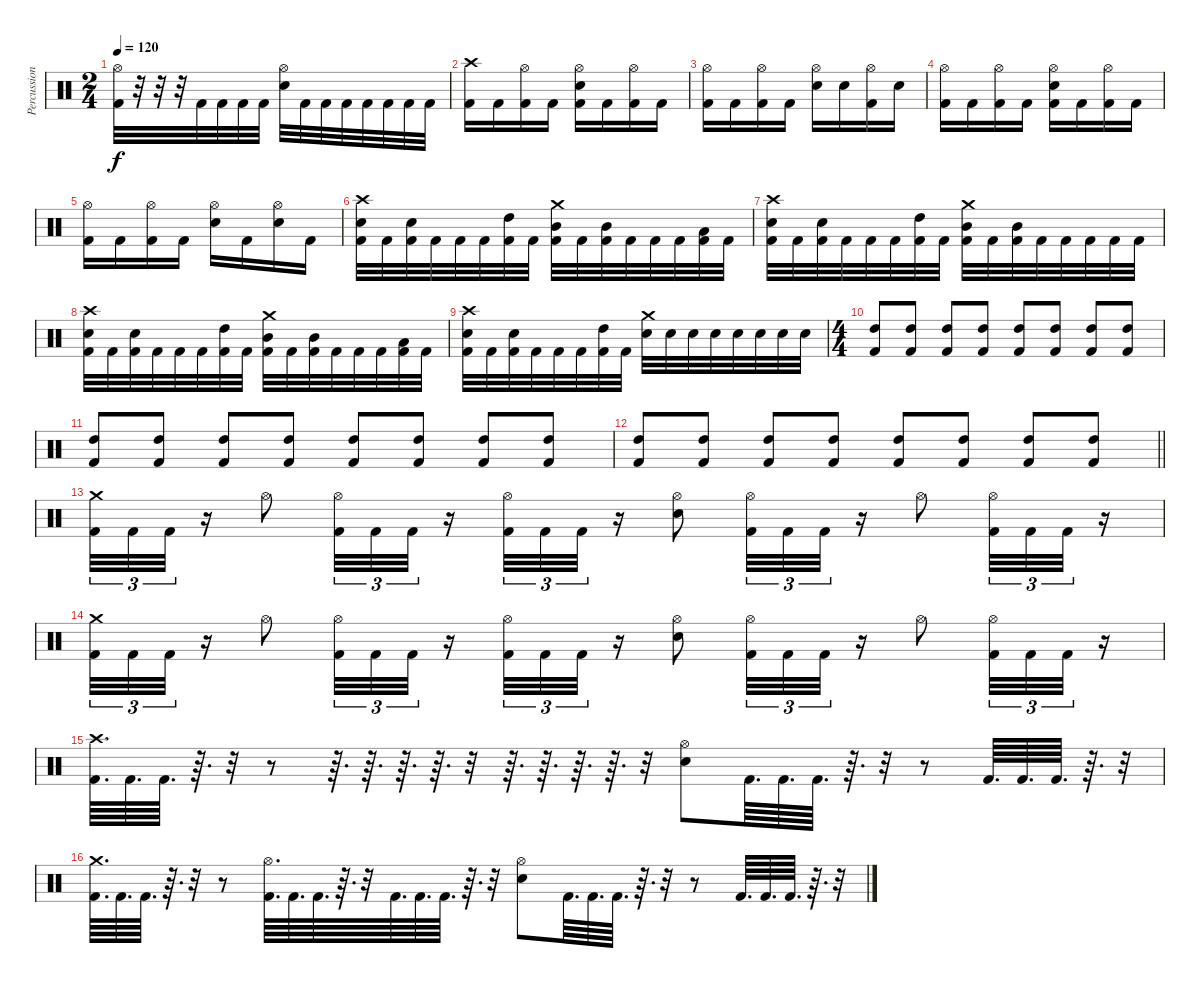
\track ("Percussion" "Percussion") {instrument percussion}
\staff {score}
\articulation defaults
\ts (2 4)
\tempo 120
\clef neutral
\ks c
("Kick (hit) 2" "Hi-Hat (open)").32{dy f} r.32 r.32 r.32 "Kick (hit) 2".32 "Kick (hit) 2".32 "Kick (hit) 2".32 "Kick (hit) 2".32 ("Electric Snare (hit)" "Hi-Hat (open)").32 "Kick (hit) 2".32 "Kick (hit) 2".32 "Kick (hit) 2".32 "Kick (hit) 2".32 "Kick (hit) 2".32 "Kick (hit) 2".32 "Kick (hit) 2".32 |
("Kick (hit) 2" "Crash high (hit)").16 "Kick (hit) 2".16 ("Kick (hit) 2" "Hi-Hat (open)").16 "Kick (hit) 2".16 ("Kick (hit) 2" "Electric Snare (hit)" "Hi-Hat (open)").16 "Kick (hit) 2".16 ("Kick (hit) 2" "Hi-Hat (open)").16 "Kick (hit) 2".16 |
("Kick (hit) 2" "Hi-Hat (open)").16 "Kick (hit) 2".16 ("Kick (hit) 2" "Hi-Hat (open)").16 "Kick (hit) 2".16 ("Electric Snare (hit)" "Hi-Hat (open)").16 "Electric Snare (hit)".16 ("Kick (hit) 2" "Hi-Hat (open)").16 "Electric Snare (hit)".16 |
("Kick (hit) 2" "Hi-Hat (open)").16 "Kick (hit) 2".16 ("Kick (hit) 2" "Hi-Hat (open)").16 "Kick (hit) 2".16 ("Kick (hit) 2" "Electric Snare (hit)" "Hi-Hat (open)").16 "Kick (hit) 2".16 ("Kick (hit) 2" "Hi-Hat (open)").16 "Kick (hit) 2".16 |
("Kick (hit) 2" "Hi-Hat (open)").16 "Kick (hit) 2".16 ("Kick (hit) 2" "Hi-Hat (open)").16 "Kick (hit) 2".16 ("Electric Snare (hit)" "Hi-Hat (open)").16 "Kick (hit) 2".16 ("Electric Snare (hit)" "Hi-Hat (open)").16 "Kick (hit) 2".16 |
("Kick (hit) 2" "Electric Snare (hit)" "Crash high (hit)").32 "Kick (hit) 2".32 ("Kick (hit) 2" "Electric Snare (hit)").32 "Kick (hit) 2".32 "Kick (hit) 2".32 "Kick (hit) 2".32 ("Kick (hit) 2" "High Tom (hit)").32 "Kick (hit) 2".32 ("Kick (hit) 2" "Mid Tom (hit)" "Crash medium (hit)").32 "Kick (hit) 2".32 ("Kick (hit) 2" "Mid Tom (hit)").32 "Kick (hit) 2".32 "Kick (hit) 2".32 "Kick (hit) 2".32 ("Kick (hit) 2" "Low Tom (hit)").32 "Kick (hit) 2".32 |
("Kick (hit) 2" "Electric Snare (hit)" "Crash high (hit)").32 "Kick (hit) 2".32 ("Kick (hit) 2" "Electric Snare (hit)").32 "Kick (hit) 2".32 "Kick (hit) 2".32 "Kick (hit) 2".32 ("Kick (hit) 2" "High Tom (hit)").32 "Kick (hit) 2".32 ("Kick (hit) 2" "Mid Tom (hit)" "Crash medium (hit)").32 "Kick (hit) 2".32 ("Kick (hit) 2" "Mid Tom (hit)").32 "Kick (hit) 2".32 "Kick (hit) 2".32 "Kick (hit) 2".32 "Kick (hit) 2".32 "Kick (hit) 2".32 |
("Kick (hit) 2" "Electric Snare (hit)" "Crash high (hit)").32 "Kick (hit) 2".32 ("Kick (hit) 2" "Electric Snare (hit)").32 "Kick (hit) 2".32 "Kick (hit) 2".32 "Kick (hit) 2".32 ("Kick (hit) 2" "High Tom (hit)").32 "Kick (hit) 2".32 ("Kick (hit) 2" "Mid Tom (hit)" "Crash medium (hit)").32 "Kick (hit) 2".32 ("Kick (hit) 2" "Mid Tom (hit)").32 "Kick (hit) 2".32 "Kick (hit) 2".32 "Kick (hit) 2".32 ("Kick (hit) 2" "Low Tom (hit)").32 "Kick (hit) 2".32 |
("Kick (hit) 2" "Electric Snare (hit)" "Crash high (hit)").32 "Kick (hit) 2".32 ("Kick (hit) 2" "Electric Snare (hit)").32 "Kick (hit) 2".32 "Kick (hit) 2".32 "Kick (hit) 2".32 ("Kick (hit) 2" "High Tom (hit)").32 "Kick (hit) 2".32 ("Electric Snare (hit)" "Crash medium (hit)").32 "Electric Snare (hit)".32 "Electric Snare (hit)".32 "Electric Snare (hit)".32 "Electric Snare (hit)".32 "Electric Snare (hit)".32 "Electric Snare (hit)".32 "Electric Snare (hit)".32 |
\ts (4 4)
("Kick (hit) 2" "High Tom (hit)").8 ("Kick (hit) 2" "High Tom (hit)").8 ("Kick (hit) 2" "High Tom (hit)").8 ("Kick (hit) 2" "High Tom (hit)").8 ("Kick (hit) 2" "High Tom (hit)").8 ("Kick (hit) 2" "High Tom (hit)").8 ("Kick (hit) 2" "High Tom (hit)").8 ("Kick (hit) 2" "High Tom (hit)").8 |
("Kick (hit) 2" "High Tom (hit)").8 ("Kick (hit) 2" "High Tom (hit)").8 ("Kick (hit) 2" "High Tom (hit)").8 ("Kick (hit) 2" "High Tom (hit)").8 ("Kick (hit) 2" "High Tom (hit)").8 ("Kick (hit) 2" "High Tom (hit)").8 ("Kick (hit) 2" "High Tom (hit)").8 ("Kick (hit) 2" "High Tom (hit)").8 |
\barLineRight lightlight
("Kick (hit) 2" "High Tom (hit)").8 ("Kick (hit) 2" "High Tom (hit)").8 ("Kick (hit) 2" "High Tom (hit)").8 ("Kick (hit) 2" "High Tom (hit)").8 ("Kick (hit) 2" "High Tom (hit)").8 ("Kick (hit) 2" "High Tom (hit)").8 ("Kick (hit) 2" "High Tom (hit)").8 ("Kick (hit) 2" "High Tom (hit)").8 |
("Kick (hit) 2" "Crash medium (hit)").32{tu (3 2)} "Kick (hit) 2".32{tu (3 2)} "Kick (hit) 2".32{tu (3 2)} r.16 "Hi-Hat (open)".8 ("Kick (hit) 2" "Hi-Hat (open)").32{tu (3 2)} "Kick (hit) 2".32{tu (3 2)} "Kick (hit) 2".32{tu (3 2)} r.16 ("Kick (hit) 2" "Hi-Hat (open)").32{tu (3 2)} "Kick (hit) 2".32{tu (3 2)} "Kick (hit) 2".32{tu (3 2)} r.16 ("Electric Snare (hit)" "Hi-Hat (open)").8 ("Kick (hit) 2" "Hi-Hat (open)").32{tu (3 2)} "Kick (hit) 2".32{tu (3 2)} "Kick (hit) 2".32{tu (3 2)} r.16 "Hi-Hat (open)".8 ("Kick (hit) 2" "Hi-Hat (open)").32{tu (3 2)} "Kick (hit) 2".32{tu (3 2)} "Kick (hit) 2".32{tu (3 2)} r.16 |
("Kick (hit) 2" "Crash medium (hit)").32{tu (3 2)} "Kick (hit) 2".32{tu (3 2)} "Kick (hit) 2".32{tu (3 2)} r.16 "Hi-Hat (open)".8 ("Kick (hit) 2" "Hi-Hat (open)").32{tu (3 2)} "Kick (hit) 2".32{tu (3 2)} "Kick (hit) 2".32{tu (3 2)} r.16 ("Kick (hit) 2" "Hi-Hat (open)").32{tu (3 2)} "Kick (hit) 2".32{tu (3 2)} "Kick (hit) 2".32{tu (3 2)} r.16 ("Electric Snare (hit)" "Hi-Hat (open)").8 ("Kick (hit) 2" "Hi-Hat (open)").32{tu (3 2)} "Kick (hit) 2".32{tu (3 2)} "Kick (hit) 2".32{tu (3 2)} r.16 "Hi-Hat (open)".8 ("Kick (hit) 2" "Hi-Hat (open)").32{tu (3 2)} "Kick (hit) 2".32{tu (3 2)} "Kick (hit) 2".32{tu (3 2)} r.16 |
("Kick (hit) 2" "Crash high (hit)").64{d} "Kick (hit) 2".64{d} "Kick (hit) 2".64{d} r.64{d} r.32 r.8 r.64{d} r.64{d} r.64{d} r.64{d} r.32 r.64{d} r.64{d} r.64{d} r.64{d} r.32 ("Electric Snare (hit)" "Hi-Hat (open)").8 "Kick (hit) 2".64{d} "Kick (hit) 2".64{d} "Kick (hit) 2".64{d} r.64{d} r.32 r.8 "Kick (hit) 2".64{d} "Kick (hit) 2".64{d} "Kick (hit) 2".64{d} r.64{d} r.32 |
("Kick (hit) 2" "Crash medium (hit)").64{d} "Kick (hit) 2".64{d} "Kick (hit) 2".64{d} r.64{d} r.32 r.8 ("Kick (hit) 2" "Hi-Hat (open)").64{d} "Kick (hit) 2".64{d} "Kick (hit) 2".64{d} r.64{d} r.32 "Kick (hit) 2".64{d} "Kick (hit) 2".64{d} "Kick (hit) 2".64{d} r.64{d} r.32 ("Electric Snare (hit)" "Hi-Hat (open)").8 "Kick (hit) 2".64{d} "Kick (hit) 2".64{d} "Kick (hit) 2".64{d} r.64{d} r.32 r.8 "Kick (hit) 2".64{d} "Kick (hit) 2".64{d} "Kick (hit) 2".64{d} r.64{d} r.32
